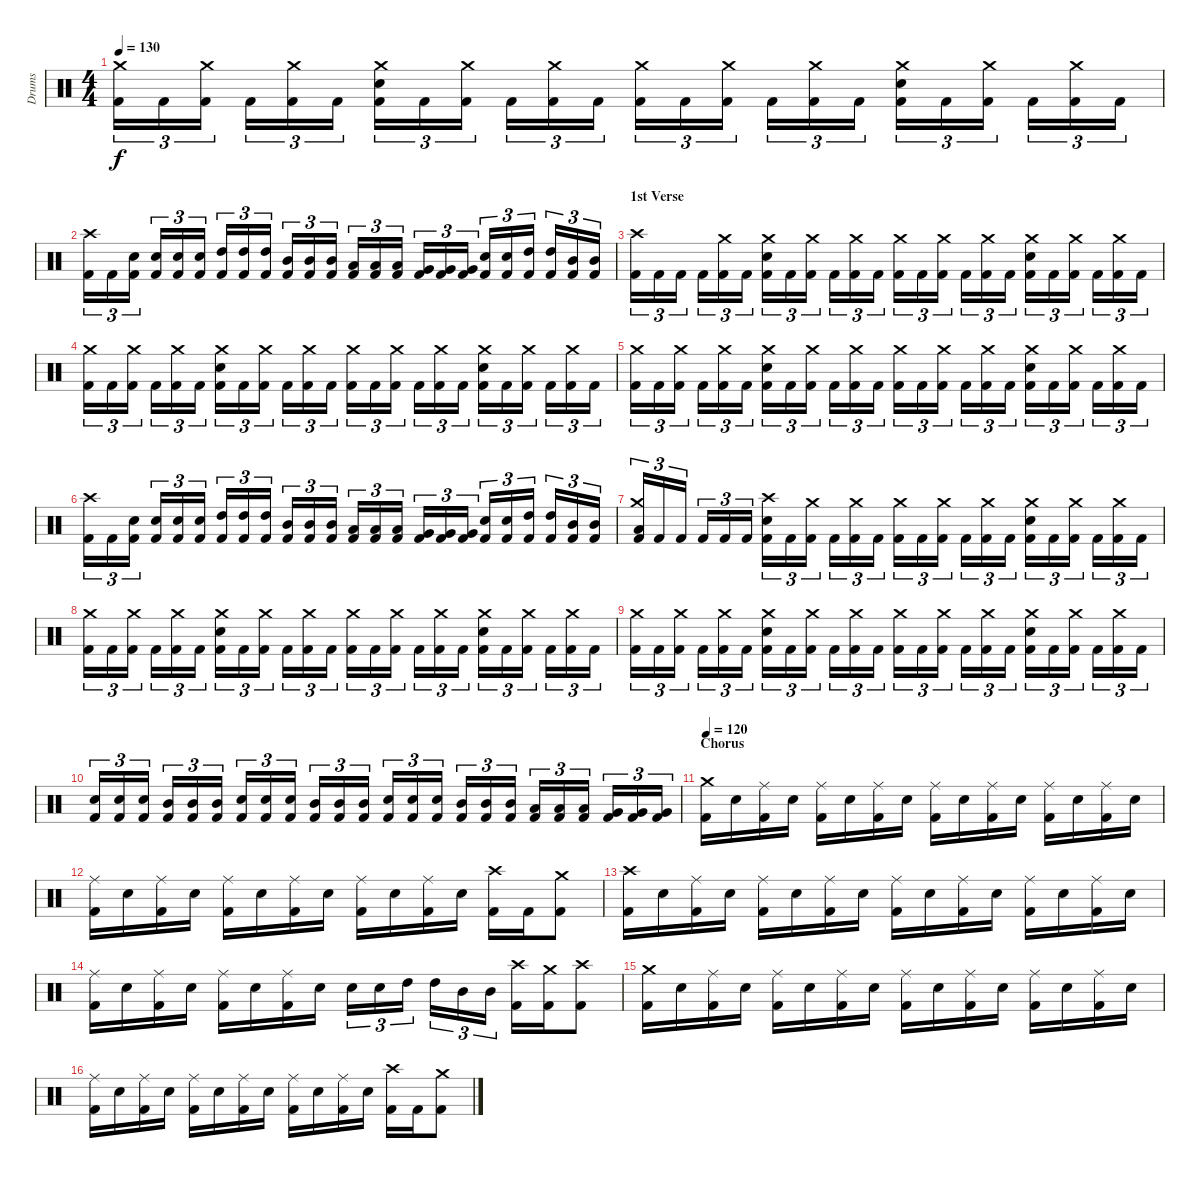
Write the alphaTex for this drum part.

\track ("Drums" "Drums") {instrument percussion}
\staff {score}
\articulation defaults
\ts (4 4)
\tempo 130
\clef neutral
\ks c
("Kick (hit) 2" "Crash medium (hit)").16{tu (3 2) dy f} "Kick (hit) 2".16{tu (3 2)} ("Kick (hit) 2" "Crash medium (hit)").16{tu (3 2)} "Kick (hit) 2".16{tu (3 2)} ("Kick (hit) 2" "Crash medium (hit)").16{tu (3 2)} "Kick (hit) 2".16{tu (3 2)} ("Kick (hit) 2" "Electric Snare (hit)" "Crash medium (hit)").16{tu (3 2)} "Kick (hit) 2".16{tu (3 2)} ("Kick (hit) 2" "Crash medium (hit)").16{tu (3 2)} "Kick (hit) 2".16{tu (3 2)} ("Kick (hit) 2" "Crash medium (hit)").16{tu (3 2)} "Kick (hit) 2".16{tu (3 2)} ("Kick (hit) 2" "Crash medium (hit)").16{tu (3 2)} "Kick (hit) 2".16{tu (3 2)} ("Kick (hit) 2" "Crash medium (hit)").16{tu (3 2)} "Kick (hit) 2".16{tu (3 2)} ("Kick (hit) 2" "Crash medium (hit)").16{tu (3 2)} "Kick (hit) 2".16{tu (3 2)} ("Kick (hit) 2" "Electric Snare (hit)" "Crash medium (hit)").16{tu (3 2)} "Kick (hit) 2".16{tu (3 2)} ("Kick (hit) 2" "Crash medium (hit)").16{tu (3 2)} "Kick (hit) 2".16{tu (3 2)} ("Kick (hit) 2" "Crash medium (hit)").16{tu (3 2)} "Kick (hit) 2".16{tu (3 2)} |
("Kick (hit) 2" "Crash high (hit)").16{tu (3 2)} "Kick (hit) 2".16{tu (3 2)} ("Kick (hit) 2" "Electric Snare (hit)").16{tu (3 2)} ("Kick (hit) 2" "Electric Snare (hit)").16{tu (3 2)} ("Kick (hit) 2" "Electric Snare (hit)").16{tu (3 2)} ("Kick (hit) 2" "Electric Snare (hit)").16{tu (3 2)} ("Kick (hit) 2" "High Tom (hit)").16{tu (3 2)} ("Kick (hit) 2" "High Tom (hit)").16{tu (3 2)} ("Kick (hit) 2" "High Tom (hit)").16{tu (3 2)} ("Kick (hit) 2" "Mid Tom (hit)").16{tu (3 2)} ("Kick (hit) 2" "Mid Tom (hit)").16{tu (3 2)} ("Kick (hit) 2" "Mid Tom (hit)").16{tu (3 2)} ("Kick (hit) 2" "Low Tom (hit)").16{tu (3 2)} ("Kick (hit) 2" "Low Tom (hit)").16{tu (3 2)} ("Kick (hit) 2" "Low Tom (hit)").16{tu (3 2)} ("Kick (hit) 2" "Very Low Tom (hit)").16{tu (3 2)} ("Kick (hit) 2" "Very Low Tom (hit)").16{tu (3 2)} ("Kick (hit) 2" "Very Low Tom (hit)").16{tu (3 2)} ("Kick (hit) 2" "Electric Snare (hit)").16{tu (3 2)} ("Kick (hit) 2" "Electric Snare (hit)").16{tu (3 2)} ("Kick (hit) 2" "High Tom (hit)").16{tu (3 2)} ("Kick (hit) 2" "High Tom (hit)").16{tu (3 2)} ("Kick (hit) 2" "Mid Tom (hit)").16{tu (3 2)} ("Kick (hit) 2" "Mid Tom (hit)").16{tu (3 2)} |
\section ("" "1st Verse")
("Kick (hit) 2" "Crash high (hit)").16{tu (3 2)} "Kick (hit) 2".16{tu (3 2)} "Kick (hit) 2".16{tu (3 2)} "Kick (hit) 2".16{tu (3 2)} ("Kick (hit) 2" "Crash medium (hit)").16{tu (3 2)} "Kick (hit) 2".16{tu (3 2)} ("Kick (hit) 2" "Electric Snare (hit)" "Crash medium (hit)").16{tu (3 2)} "Kick (hit) 2".16{tu (3 2)} ("Kick (hit) 2" "Crash medium (hit)").16{tu (3 2)} "Kick (hit) 2".16{tu (3 2)} ("Kick (hit) 2" "Crash medium (hit)").16{tu (3 2)} "Kick (hit) 2".16{tu (3 2)} ("Kick (hit) 2" "Crash medium (hit)").16{tu (3 2)} "Kick (hit) 2".16{tu (3 2)} ("Kick (hit) 2" "Crash medium (hit)").16{tu (3 2)} "Kick (hit) 2".16{tu (3 2)} ("Kick (hit) 2" "Crash medium (hit)").16{tu (3 2)} "Kick (hit) 2".16{tu (3 2)} ("Kick (hit) 2" "Electric Snare (hit)" "Crash medium (hit)").16{tu (3 2)} "Kick (hit) 2".16{tu (3 2)} ("Kick (hit) 2" "Crash medium (hit)").16{tu (3 2)} "Kick (hit) 2".16{tu (3 2)} ("Kick (hit) 2" "Crash medium (hit)").16{tu (3 2)} "Kick (hit) 2".16{tu (3 2)} |
("Kick (hit) 2" "Crash medium (hit)").16{tu (3 2)} "Kick (hit) 2".16{tu (3 2)} ("Kick (hit) 2" "Crash medium (hit)").16{tu (3 2)} "Kick (hit) 2".16{tu (3 2)} ("Kick (hit) 2" "Crash medium (hit)").16{tu (3 2)} "Kick (hit) 2".16{tu (3 2)} ("Kick (hit) 2" "Electric Snare (hit)" "Crash medium (hit)").16{tu (3 2)} "Kick (hit) 2".16{tu (3 2)} ("Kick (hit) 2" "Crash medium (hit)").16{tu (3 2)} "Kick (hit) 2".16{tu (3 2)} ("Kick (hit) 2" "Crash medium (hit)").16{tu (3 2)} "Kick (hit) 2".16{tu (3 2)} ("Kick (hit) 2" "Crash medium (hit)").16{tu (3 2)} "Kick (hit) 2".16{tu (3 2)} ("Kick (hit) 2" "Crash medium (hit)").16{tu (3 2)} "Kick (hit) 2".16{tu (3 2)} ("Kick (hit) 2" "Crash medium (hit)").16{tu (3 2)} "Kick (hit) 2".16{tu (3 2)} ("Kick (hit) 2" "Electric Snare (hit)" "Crash medium (hit)").16{tu (3 2)} "Kick (hit) 2".16{tu (3 2)} ("Kick (hit) 2" "Crash medium (hit)").16{tu (3 2)} "Kick (hit) 2".16{tu (3 2)} ("Kick (hit) 2" "Crash medium (hit)").16{tu (3 2)} "Kick (hit) 2".16{tu (3 2)} |
("Kick (hit) 2" "Crash medium (hit)").16{tu (3 2)} "Kick (hit) 2".16{tu (3 2)} ("Kick (hit) 2" "Crash medium (hit)").16{tu (3 2)} "Kick (hit) 2".16{tu (3 2)} ("Kick (hit) 2" "Crash medium (hit)").16{tu (3 2)} "Kick (hit) 2".16{tu (3 2)} ("Kick (hit) 2" "Electric Snare (hit)" "Crash medium (hit)").16{tu (3 2)} "Kick (hit) 2".16{tu (3 2)} ("Kick (hit) 2" "Crash medium (hit)").16{tu (3 2)} "Kick (hit) 2".16{tu (3 2)} ("Kick (hit) 2" "Crash medium (hit)").16{tu (3 2)} "Kick (hit) 2".16{tu (3 2)} ("Kick (hit) 2" "Crash medium (hit)").16{tu (3 2)} "Kick (hit) 2".16{tu (3 2)} ("Kick (hit) 2" "Crash medium (hit)").16{tu (3 2)} "Kick (hit) 2".16{tu (3 2)} ("Kick (hit) 2" "Crash medium (hit)").16{tu (3 2)} "Kick (hit) 2".16{tu (3 2)} ("Kick (hit) 2" "Electric Snare (hit)" "Crash medium (hit)").16{tu (3 2)} "Kick (hit) 2".16{tu (3 2)} ("Kick (hit) 2" "Crash medium (hit)").16{tu (3 2)} "Kick (hit) 2".16{tu (3 2)} ("Kick (hit) 2" "Crash medium (hit)").16{tu (3 2)} "Kick (hit) 2".16{tu (3 2)} |
("Kick (hit) 2" "Crash high (hit)").16{tu (3 2)} "Kick (hit) 2".16{tu (3 2)} ("Kick (hit) 2" "Electric Snare (hit)").16{tu (3 2)} ("Kick (hit) 2" "Electric Snare (hit)").16{tu (3 2)} ("Kick (hit) 2" "Electric Snare (hit)").16{tu (3 2)} ("Kick (hit) 2" "Electric Snare (hit)").16{tu (3 2)} ("Kick (hit) 2" "High Tom (hit)").16{tu (3 2)} ("Kick (hit) 2" "High Tom (hit)").16{tu (3 2)} ("Kick (hit) 2" "High Tom (hit)").16{tu (3 2)} ("Kick (hit) 2" "Mid Tom (hit)").16{tu (3 2)} ("Kick (hit) 2" "Mid Tom (hit)").16{tu (3 2)} ("Kick (hit) 2" "Mid Tom (hit)").16{tu (3 2)} ("Kick (hit) 2" "Low Tom (hit)").16{tu (3 2)} ("Kick (hit) 2" "Low Tom (hit)").16{tu (3 2)} ("Kick (hit) 2" "Low Tom (hit)").16{tu (3 2)} ("Kick (hit) 2" "Very Low Tom (hit)").16{tu (3 2)} ("Kick (hit) 2" "Very Low Tom (hit)").16{tu (3 2)} ("Kick (hit) 2" "Very Low Tom (hit)").16{tu (3 2)} ("Kick (hit) 2" "Electric Snare (hit)").16{tu (3 2)} ("Kick (hit) 2" "Electric Snare (hit)").16{tu (3 2)} ("Kick (hit) 2" "High Tom (hit)").16{tu (3 2)} ("Kick (hit) 2" "High Tom (hit)").16{tu (3 2)} ("Kick (hit) 2" "Mid Tom (hit)").16{tu (3 2)} ("Kick (hit) 2" "Mid Tom (hit)").16{tu (3 2)} |
("Kick (hit) 2" "Low Tom (hit)" "Crash medium (hit)").16{tu (3 2)} "Kick (hit) 2".16{tu (3 2)} "Kick (hit) 2".16{tu (3 2)} "Kick (hit) 2".16{tu (3 2)} "Kick (hit) 2".16{tu (3 2)} "Kick (hit) 2".16{tu (3 2)} ("Kick (hit) 2" "Electric Snare (hit)" "Crash high (hit)").16{tu (3 2)} "Kick (hit) 2".16{tu (3 2)} ("Kick (hit) 2" "Crash medium (hit)").16{tu (3 2)} "Kick (hit) 2".16{tu (3 2)} ("Kick (hit) 2" "Crash medium (hit)").16{tu (3 2)} "Kick (hit) 2".16{tu (3 2)} ("Kick (hit) 2" "Crash medium (hit)").16{tu (3 2)} "Kick (hit) 2".16{tu (3 2)} ("Kick (hit) 2" "Crash medium (hit)").16{tu (3 2)} "Kick (hit) 2".16{tu (3 2)} ("Kick (hit) 2" "Crash medium (hit)").16{tu (3 2)} "Kick (hit) 2".16{tu (3 2)} ("Kick (hit) 2" "Electric Snare (hit)" "Crash medium (hit)").16{tu (3 2)} "Kick (hit) 2".16{tu (3 2)} ("Kick (hit) 2" "Crash medium (hit)").16{tu (3 2)} "Kick (hit) 2".16{tu (3 2)} ("Kick (hit) 2" "Crash medium (hit)").16{tu (3 2)} "Kick (hit) 2".16{tu (3 2)} |
("Kick (hit) 2" "Crash medium (hit)").16{tu (3 2)} "Kick (hit) 2".16{tu (3 2)} ("Kick (hit) 2" "Crash medium (hit)").16{tu (3 2)} "Kick (hit) 2".16{tu (3 2)} ("Kick (hit) 2" "Crash medium (hit)").16{tu (3 2)} "Kick (hit) 2".16{tu (3 2)} ("Kick (hit) 2" "Electric Snare (hit)" "Crash medium (hit)").16{tu (3 2)} "Kick (hit) 2".16{tu (3 2)} ("Kick (hit) 2" "Crash medium (hit)").16{tu (3 2)} "Kick (hit) 2".16{tu (3 2)} ("Kick (hit) 2" "Crash medium (hit)").16{tu (3 2)} "Kick (hit) 2".16{tu (3 2)} ("Kick (hit) 2" "Crash medium (hit)").16{tu (3 2)} "Kick (hit) 2".16{tu (3 2)} ("Kick (hit) 2" "Crash medium (hit)").16{tu (3 2)} "Kick (hit) 2".16{tu (3 2)} ("Kick (hit) 2" "Crash medium (hit)").16{tu (3 2)} "Kick (hit) 2".16{tu (3 2)} ("Kick (hit) 2" "Electric Snare (hit)" "Crash medium (hit)").16{tu (3 2)} "Kick (hit) 2".16{tu (3 2)} ("Kick (hit) 2" "Crash medium (hit)").16{tu (3 2)} "Kick (hit) 2".16{tu (3 2)} ("Kick (hit) 2" "Crash medium (hit)").16{tu (3 2)} "Kick (hit) 2".16{tu (3 2)} |
("Kick (hit) 2" "Crash medium (hit)").16{tu (3 2)} "Kick (hit) 2".16{tu (3 2)} ("Kick (hit) 2" "Crash medium (hit)").16{tu (3 2)} "Kick (hit) 2".16{tu (3 2)} ("Kick (hit) 2" "Crash medium (hit)").16{tu (3 2)} "Kick (hit) 2".16{tu (3 2)} ("Kick (hit) 2" "Electric Snare (hit)" "Crash medium (hit)").16{tu (3 2)} "Kick (hit) 2".16{tu (3 2)} ("Kick (hit) 2" "Crash medium (hit)").16{tu (3 2)} "Kick (hit) 2".16{tu (3 2)} ("Kick (hit) 2" "Crash medium (hit)").16{tu (3 2)} "Kick (hit) 2".16{tu (3 2)} ("Kick (hit) 2" "Crash medium (hit)").16{tu (3 2)} "Kick (hit) 2".16{tu (3 2)} ("Kick (hit) 2" "Crash medium (hit)").16{tu (3 2)} "Kick (hit) 2".16{tu (3 2)} ("Kick (hit) 2" "Crash medium (hit)").16{tu (3 2)} "Kick (hit) 2".16{tu (3 2)} ("Kick (hit) 2" "Electric Snare (hit)" "Crash medium (hit)").16{tu (3 2)} "Kick (hit) 2".16{tu (3 2)} ("Kick (hit) 2" "Crash medium (hit)").16{tu (3 2)} "Kick (hit) 2".16{tu (3 2)} ("Kick (hit) 2" "Crash medium (hit)").16{tu (3 2)} "Kick (hit) 2".16{tu (3 2)} |
("Kick (hit) 2" "Electric Snare (hit)").16{tu (3 2)} ("Kick (hit) 2" "Electric Snare (hit)").16{tu (3 2)} ("Kick (hit) 2" "Electric Snare (hit)").16{tu (3 2)} ("Kick (hit) 2" "Mid Tom (hit)").16{tu (3 2)} ("Kick (hit) 2" "Mid Tom (hit)").16{tu (3 2)} ("Kick (hit) 2" "Mid Tom (hit)").16{tu (3 2)} ("Kick (hit) 2" "Electric Snare (hit)").16{tu (3 2)} ("Kick (hit) 2" "Electric Snare (hit)").16{tu (3 2)} ("Kick (hit) 2" "Electric Snare (hit)").16{tu (3 2)} ("Kick (hit) 2" "Mid Tom (hit)").16{tu (3 2)} ("Kick (hit) 2" "Mid Tom (hit)").16{tu (3 2)} ("Kick (hit) 2" "Mid Tom (hit)").16{tu (3 2)} ("Kick (hit) 2" "Electric Snare (hit)").16{tu (3 2)} ("Kick (hit) 2" "Electric Snare (hit)").16{tu (3 2)} ("Kick (hit) 2" "Electric Snare (hit)").16{tu (3 2)} ("Kick (hit) 2" "Mid Tom (hit)").16{tu (3 2)} ("Kick (hit) 2" "Mid Tom (hit)").16{tu (3 2)} ("Kick (hit) 2" "Mid Tom (hit)").16{tu (3 2)} ("Kick (hit) 2" "Low Tom (hit)").16{tu (3 2)} ("Kick (hit) 2" "Low Tom (hit)").16{tu (3 2)} ("Kick (hit) 2" "Low Tom (hit)").16{tu (3 2)} ("Kick (hit) 2" "Very Low Tom (hit)").16{tu (3 2)} ("Kick (hit) 2" "Very Low Tom (hit)").16{tu (3 2)} ("Kick (hit) 2" "Very Low Tom (hit)").16{tu (3 2)} |
\section ("" "Chorus")
\tempo 120
("Kick (hit) 2" "Crash medium (hit)").16 "Electric Snare (hit)".16 ("Kick (hit) 2" "Ride (middle)").16 "Electric Snare (hit)".16 ("Kick (hit) 2" "Ride (middle)").16 "Electric Snare (hit)".16 ("Kick (hit) 2" "Ride (middle)").16 "Electric Snare (hit)".16 ("Kick (hit) 2" "Ride (middle)").16 "Electric Snare (hit)".16 ("Kick (hit) 2" "Ride (middle)").16 "Electric Snare (hit)".16 ("Kick (hit) 2" "Ride (middle)").16 "Electric Snare (hit)".16 ("Kick (hit) 2" "Ride (middle)").16 "Electric Snare (hit)".16 |
("Kick (hit) 2" "Ride (middle)").16 "Electric Snare (hit)".16 ("Kick (hit) 2" "Ride (middle)").16 "Electric Snare (hit)".16 ("Kick (hit) 2" "Ride (middle)").16 "Electric Snare (hit)".16 ("Kick (hit) 2" "Ride (middle)").16 "Electric Snare (hit)".16 ("Kick (hit) 2" "Ride (middle)").16 "Electric Snare (hit)".16 ("Kick (hit) 2" "Ride (middle)").16 "Electric Snare (hit)".16 ("Kick (hit) 2" "Crash high (hit)").16 "Kick (hit) 2".16 ("Kick (hit) 2" "Crash medium (hit)").8 |
("Kick (hit) 2" "Crash high (hit)").16 "Electric Snare (hit)".16 ("Kick (hit) 2" "Ride (middle)").16 "Electric Snare (hit)".16 ("Kick (hit) 2" "Ride (middle)").16 "Electric Snare (hit)".16 ("Kick (hit) 2" "Ride (middle)").16 "Electric Snare (hit)".16 ("Kick (hit) 2" "Ride (middle)").16 "Electric Snare (hit)".16 ("Kick (hit) 2" "Ride (middle)").16 "Electric Snare (hit)".16 ("Kick (hit) 2" "Ride (middle)").16 "Electric Snare (hit)".16 ("Kick (hit) 2" "Ride (middle)").16 "Electric Snare (hit)".16 |
("Kick (hit) 2" "Ride (middle)").16 "Electric Snare (hit)".16 ("Kick (hit) 2" "Ride (middle)").16 "Electric Snare (hit)".16 ("Kick (hit) 2" "Ride (middle)").16 "Electric Snare (hit)".16 ("Kick (hit) 2" "Ride (middle)").16 "Electric Snare (hit)".16 "Electric Snare (hit)".16{tu (3 2)} "Electric Snare (hit)".16{tu (3 2)} "High Tom (hit)".16{tu (3 2)} "High Tom (hit)".16{tu (3 2)} "Mid Tom (hit)".16{tu (3 2)} "Mid Tom (hit)".16{tu (3 2)} ("Kick (hit) 2" "Crash high (hit)").16 ("Kick (hit) 2" "Crash medium (hit)").16 ("Kick (hit) 2" "Crash high (hit)").8 |
("Kick (hit) 2" "Crash medium (hit)").16 "Electric Snare (hit)".16 ("Kick (hit) 2" "Ride (middle)").16 "Electric Snare (hit)".16 ("Kick (hit) 2" "Ride (middle)").16 "Electric Snare (hit)".16 ("Kick (hit) 2" "Ride (middle)").16 "Electric Snare (hit)".16 ("Kick (hit) 2" "Ride (middle)").16 "Electric Snare (hit)".16 ("Kick (hit) 2" "Ride (middle)").16 "Electric Snare (hit)".16 ("Kick (hit) 2" "Ride (middle)").16 "Electric Snare (hit)".16 ("Kick (hit) 2" "Ride (middle)").16 "Electric Snare (hit)".16 |
("Kick (hit) 2" "Ride (middle)").16 "Electric Snare (hit)".16 ("Kick (hit) 2" "Ride (middle)").16 "Electric Snare (hit)".16 ("Kick (hit) 2" "Ride (middle)").16 "Electric Snare (hit)".16 ("Kick (hit) 2" "Ride (middle)").16 "Electric Snare (hit)".16 ("Kick (hit) 2" "Ride (middle)").16 "Electric Snare (hit)".16 ("Kick (hit) 2" "Ride (middle)").16 "Electric Snare (hit)".16 ("Kick (hit) 2" "Crash high (hit)").16 "Kick (hit) 2".16 ("Kick (hit) 2" "Crash medium (hit)").8
